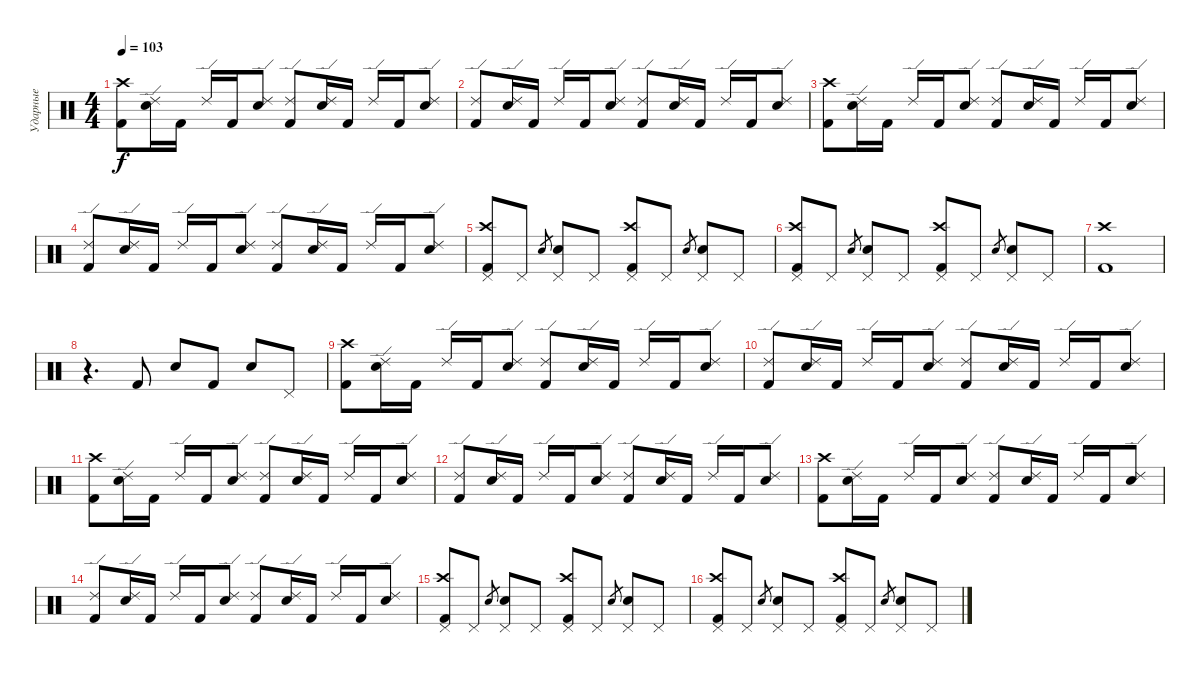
\track ("Ударные" "Ударные") {instrument percussion}
\staff {score}
\articulation defaults
\ts (4 4)
\tempo 103
\clef neutral
\ks c
("Kick (hit) 2" "Crash high (hit)").8{dy f} ("Electric Snare (hit)" "Ride (edge) 2").16 "Kick (hit) 2".16 "Ride (edge) 2".16 "Kick (hit) 2".16 ("Electric Snare (hit)" "Ride (edge) 2").8 ("Kick (hit) 2" "Ride (edge) 2").8 ("Electric Snare (hit)" "Ride (edge) 2").16 "Kick (hit) 2".16 "Ride (edge) 2".16 "Kick (hit) 2".16 ("Electric Snare (hit)" "Ride (edge) 2").8 |
("Kick (hit) 2" "Ride (edge) 2").8 ("Electric Snare (hit)" "Ride (edge) 2").16 "Kick (hit) 2".16 "Ride (edge) 2".16 "Kick (hit) 2".16 ("Electric Snare (hit)" "Ride (edge) 2").8 ("Kick (hit) 2" "Ride (edge) 2").8 ("Electric Snare (hit)" "Ride (edge) 2").16 "Kick (hit) 2".16 "Ride (edge) 2".16 "Kick (hit) 2".16 ("Electric Snare (hit)" "Ride (edge) 2").8 |
("Kick (hit) 2" "Crash high (hit)").8 ("Electric Snare (hit)" "Ride (edge) 2").16 "Kick (hit) 2".16 "Ride (edge) 2".16 "Kick (hit) 2".16 ("Electric Snare (hit)" "Ride (edge) 2").8 ("Kick (hit) 2" "Ride (edge) 2").8 ("Electric Snare (hit)" "Ride (edge) 2").16 "Kick (hit) 2".16 "Ride (edge) 2".16 "Kick (hit) 2".16 ("Electric Snare (hit)" "Ride (edge) 2").8 |
("Kick (hit) 2" "Ride (edge) 2").8 ("Electric Snare (hit)" "Ride (edge) 2").16 "Kick (hit) 2".16 "Ride (edge) 2".16 "Kick (hit) 2".16 ("Electric Snare (hit)" "Ride (edge) 2").8 ("Kick (hit) 2" "Ride (edge) 2").8 ("Electric Snare (hit)" "Ride (edge) 2").16 "Kick (hit) 2".16 "Ride (edge) 2".16 "Kick (hit) 2".16 ("Electric Snare (hit)" "Ride (edge) 2").8 |
("Pedal Hi-Hat (hit)" "Kick (hit) 2" "Crash high (hit)").8 "Pedal Hi-Hat (hit)".8 "Electric Snare (hit)".8{gr} ("Pedal Hi-Hat (hit)" "Electric Snare (hit)").8 "Pedal Hi-Hat (hit)".8 ("Pedal Hi-Hat (hit)" "Kick (hit) 2" "Crash high (hit)").8 "Pedal Hi-Hat (hit)".8 "Electric Snare (hit)".8{gr} ("Pedal Hi-Hat (hit)" "Electric Snare (hit)").8 "Pedal Hi-Hat (hit)".8 |
("Pedal Hi-Hat (hit)" "Kick (hit) 2" "Crash high (hit)").8 "Pedal Hi-Hat (hit)".8 "Electric Snare (hit)".8{gr} ("Pedal Hi-Hat (hit)" "Electric Snare (hit)").8 "Pedal Hi-Hat (hit)".8 ("Pedal Hi-Hat (hit)" "Kick (hit) 2" "Crash high (hit)").8 "Pedal Hi-Hat (hit)".8 "Electric Snare (hit)".8{gr} ("Pedal Hi-Hat (hit)" "Electric Snare (hit)").8 "Pedal Hi-Hat (hit)".8 |
("Kick (hit) 2" "Crash high (hit)").1 |
r.4{d} "Kick (hit) 2".8 "Electric Snare (hit)".8 "Kick (hit) 2".8 "Electric Snare (hit)".8 "Pedal Hi-Hat (hit)".8 |
("Kick (hit) 2" "Crash high (hit)").8 ("Electric Snare (hit)" "Ride (edge) 2").16 "Kick (hit) 2".16 "Ride (edge) 2".16 "Kick (hit) 2".16 ("Electric Snare (hit)" "Ride (edge) 2").8 ("Kick (hit) 2" "Ride (edge) 2").8 ("Electric Snare (hit)" "Ride (edge) 2").16 "Kick (hit) 2".16 "Ride (edge) 2".16 "Kick (hit) 2".16 ("Electric Snare (hit)" "Ride (edge) 2").8 |
("Kick (hit) 2" "Ride (edge) 2").8 ("Electric Snare (hit)" "Ride (edge) 2").16 "Kick (hit) 2".16 "Ride (edge) 2".16 "Kick (hit) 2".16 ("Electric Snare (hit)" "Ride (edge) 2").8 ("Kick (hit) 2" "Ride (edge) 2").8 ("Electric Snare (hit)" "Ride (edge) 2").16 "Kick (hit) 2".16 "Ride (edge) 2".16 "Kick (hit) 2".16 ("Electric Snare (hit)" "Ride (edge) 2").8 |
("Kick (hit) 2" "Crash high (hit)").8 ("Electric Snare (hit)" "Ride (edge) 2").16 "Kick (hit) 2".16 "Ride (edge) 2".16 "Kick (hit) 2".16 ("Electric Snare (hit)" "Ride (edge) 2").8 ("Kick (hit) 2" "Ride (edge) 2").8 ("Electric Snare (hit)" "Ride (edge) 2").16 "Kick (hit) 2".16 "Ride (edge) 2".16 "Kick (hit) 2".16 ("Electric Snare (hit)" "Ride (edge) 2").8 |
("Kick (hit) 2" "Ride (edge) 2").8 ("Electric Snare (hit)" "Ride (edge) 2").16 "Kick (hit) 2".16 "Ride (edge) 2".16 "Kick (hit) 2".16 ("Electric Snare (hit)" "Ride (edge) 2").8 ("Kick (hit) 2" "Ride (edge) 2").8 ("Electric Snare (hit)" "Ride (edge) 2").16 "Kick (hit) 2".16 "Ride (edge) 2".16 "Kick (hit) 2".16 ("Electric Snare (hit)" "Ride (edge) 2").8 |
("Kick (hit) 2" "Crash high (hit)").8 ("Electric Snare (hit)" "Ride (edge) 2").16 "Kick (hit) 2".16 "Ride (edge) 2".16 "Kick (hit) 2".16 ("Electric Snare (hit)" "Ride (edge) 2").8 ("Kick (hit) 2" "Ride (edge) 2").8 ("Electric Snare (hit)" "Ride (edge) 2").16 "Kick (hit) 2".16 "Ride (edge) 2".16 "Kick (hit) 2".16 ("Electric Snare (hit)" "Ride (edge) 2").8 |
("Kick (hit) 2" "Ride (edge) 2").8 ("Electric Snare (hit)" "Ride (edge) 2").16 "Kick (hit) 2".16 "Ride (edge) 2".16 "Kick (hit) 2".16 ("Electric Snare (hit)" "Ride (edge) 2").8 ("Kick (hit) 2" "Ride (edge) 2").8 ("Electric Snare (hit)" "Ride (edge) 2").16 "Kick (hit) 2".16 "Ride (edge) 2".16 "Kick (hit) 2".16 ("Electric Snare (hit)" "Ride (edge) 2").8 |
("Pedal Hi-Hat (hit)" "Kick (hit) 2" "Crash high (hit)").8 "Pedal Hi-Hat (hit)".8 "Electric Snare (hit)".8{gr} ("Pedal Hi-Hat (hit)" "Electric Snare (hit)").8 "Pedal Hi-Hat (hit)".8 ("Pedal Hi-Hat (hit)" "Kick (hit) 2" "Crash high (hit)").8 "Pedal Hi-Hat (hit)".8 "Electric Snare (hit)".8{gr} ("Pedal Hi-Hat (hit)" "Electric Snare (hit)").8 "Pedal Hi-Hat (hit)".8 |
("Pedal Hi-Hat (hit)" "Kick (hit) 2" "Crash high (hit)").8 "Pedal Hi-Hat (hit)".8 "Electric Snare (hit)".8{gr} ("Pedal Hi-Hat (hit)" "Electric Snare (hit)").8 "Pedal Hi-Hat (hit)".8 ("Pedal Hi-Hat (hit)" "Kick (hit) 2" "Crash high (hit)").8 "Pedal Hi-Hat (hit)".8 "Electric Snare (hit)".8{gr} ("Pedal Hi-Hat (hit)" "Electric Snare (hit)").8 "Pedal Hi-Hat (hit)".8
